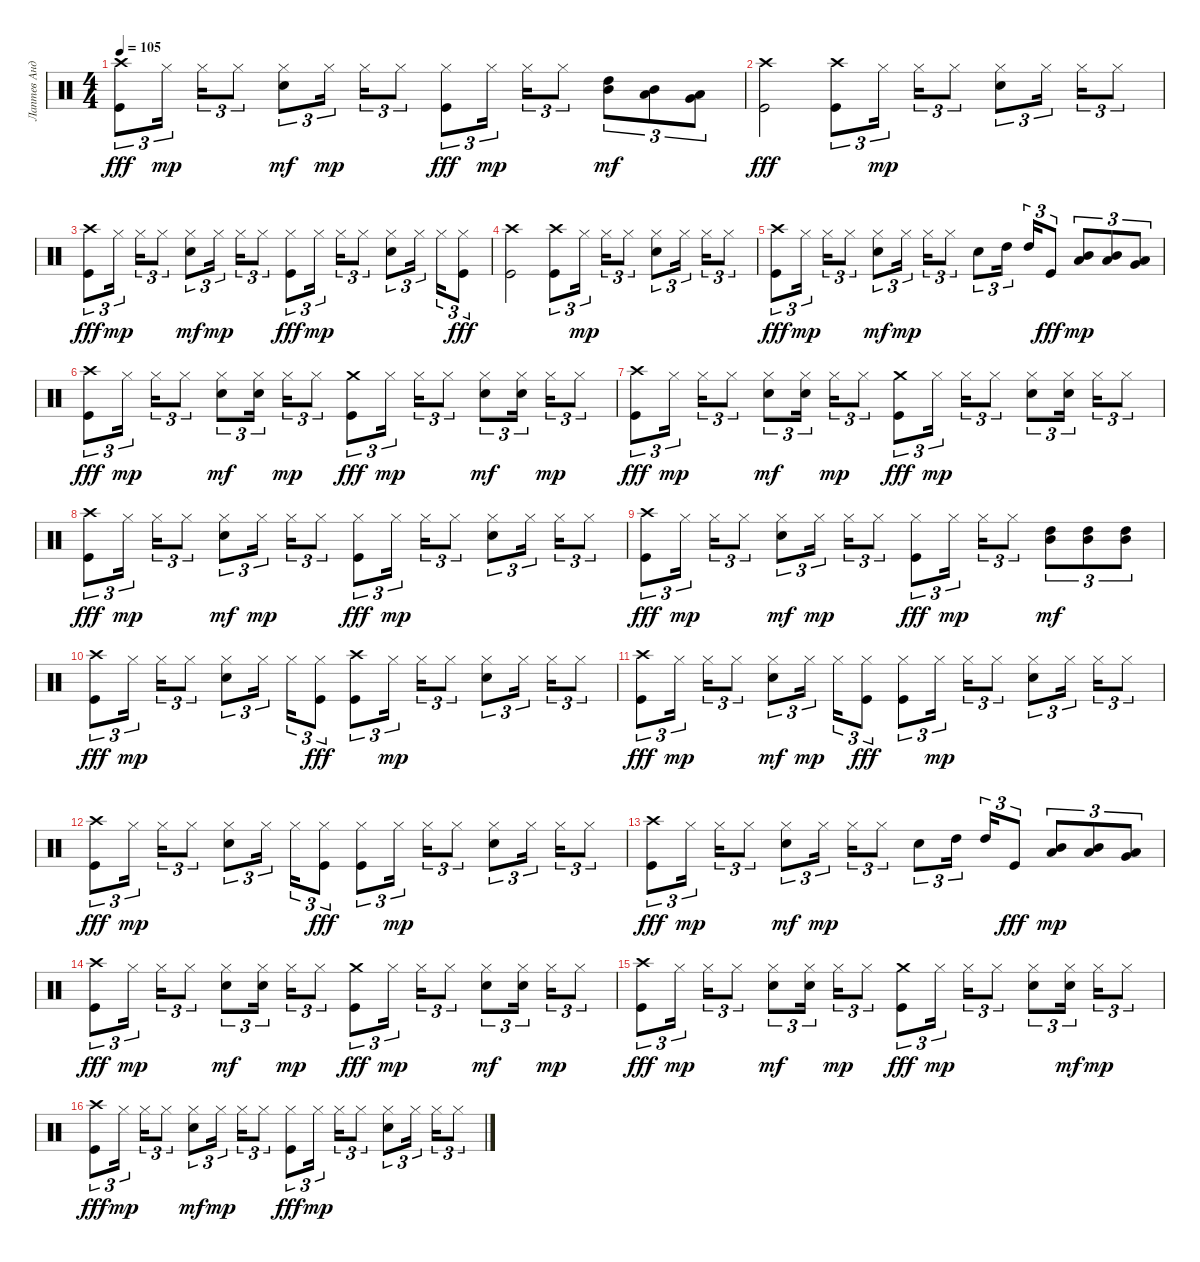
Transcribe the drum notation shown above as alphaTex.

\track ("Лаптев Андрей" "Лаптев Анд") {instrument percussion}
\staff {score}
\articulation defaults
\ts (4 4)
\tempo 105
\clef neutral
\ks c
("Crash high (hit)" "Kick (hit)").8{tu (3 2) dy fff} "Hi-Hat (closed)".16{tu (3 2) dy mp} "Hi-Hat (closed)".16{tu (3 2)} "Hi-Hat (closed)".8{tu (3 2)} ("Hi-Hat (closed)" "Electric Snare (hit)").8{tu (3 2) dy mf} "Hi-Hat (closed)".16{tu (3 2) dy mp} "Hi-Hat (closed)".16{tu (3 2)} "Hi-Hat (closed)".8{tu (3 2)} ("Hi-Hat (closed)" "Kick (hit)").8{tu (3 2) dy fff} "Hi-Hat (closed)".16{tu (3 2) dy mp} "Hi-Hat (closed)".16{tu (3 2)} "Hi-Hat (closed)".8{tu (3 2)} ("Mid Tom (hit)" "High Tom (hit)").8{tu (3 2) dy mf} ("Low Tom (hit)" "Mid Tom (hit)").8{tu (3 2)} ("Low Tom (hit)" "Very Low Tom (hit)").8{tu (3 2)} |
("Crash high (hit)" "Kick (hit)").2{dy fff} ("Crash high (hit)" "Kick (hit)").8{tu (3 2)} "Hi-Hat (closed)".16{tu (3 2) dy mp} "Hi-Hat (closed)".16{tu (3 2)} "Hi-Hat (closed)".8{tu (3 2)} ("Hi-Hat (closed)" "Electric Snare (hit)").8{tu (3 2)} "Hi-Hat (closed)".16{tu (3 2)} "Hi-Hat (closed)".16{tu (3 2)} "Hi-Hat (closed)".8{tu (3 2)} |
("Crash high (hit)" "Kick (hit)").8{tu (3 2) dy fff} "Hi-Hat (closed)".16{tu (3 2) dy mp} "Hi-Hat (closed)".16{tu (3 2)} "Hi-Hat (closed)".8{tu (3 2)} ("Hi-Hat (closed)" "Electric Snare (hit)").8{tu (3 2) dy mf} "Hi-Hat (closed)".16{tu (3 2) dy mp} "Hi-Hat (closed)".16{tu (3 2)} "Hi-Hat (closed)".8{tu (3 2)} ("Hi-Hat (closed)" "Kick (hit)").8{tu (3 2) dy fff} "Hi-Hat (closed)".16{tu (3 2) dy mp} "Hi-Hat (closed)".16{tu (3 2)} "Hi-Hat (closed)".8{tu (3 2)} ("Hi-Hat (closed)" "Electric Snare (hit)").8{tu (3 2)} "Hi-Hat (closed)".16{tu (3 2)} "Hi-Hat (closed)".16{tu (3 2)} ("Hi-Hat (closed)" "Kick (hit)").8{tu (3 2) dy fff} |
("Crash high (hit)" "Kick (hit)").2 ("Crash high (hit)" "Kick (hit)").8{tu (3 2)} "Hi-Hat (closed)".16{tu (3 2) dy mp} "Hi-Hat (closed)".16{tu (3 2)} "Hi-Hat (closed)".8{tu (3 2)} ("Hi-Hat (closed)" "Electric Snare (hit)").8{tu (3 2)} "Hi-Hat (closed)".16{tu (3 2)} "Hi-Hat (closed)".16{tu (3 2)} "Hi-Hat (closed)".8{tu (3 2)} |
("Crash high (hit)" "Kick (hit)").8{tu (3 2) dy fff} "Hi-Hat (closed)".16{tu (3 2) dy mp} "Hi-Hat (closed)".16{tu (3 2)} "Hi-Hat (closed)".8{tu (3 2)} ("Hi-Hat (closed)" "Electric Snare (hit)").8{tu (3 2) dy mf} "Hi-Hat (closed)".16{tu (3 2) dy mp} "Hi-Hat (closed)".16{tu (3 2)} "Hi-Hat (closed)".8{tu (3 2)} "Electric Snare (hit)".8{tu (3 2)} "High Tom (hit)".16{tu (3 2)} "High Tom (hit)".16{tu (3 2)} "Kick (hit)".8{tu (3 2) dy fff} ("Low Tom (hit)" "Mid Tom (hit)").8{tu (3 2) dy mp} ("Mid Tom (hit)" "Low Tom (hit)").8{tu (3 2)} ("Very Low Tom (hit)" "Low Tom (hit)").8{tu (3 2)} |
("Crash high (hit)" "Kick (hit)").8{tu (3 2) dy fff} "Hi-Hat (closed)".16{tu (3 2) dy mp} "Hi-Hat (closed)".16{tu (3 2)} "Hi-Hat (closed)".8{tu (3 2)} ("Hi-Hat (closed)" "Electric Snare (hit)").8{tu (3 2) dy mf} ("Hi-Hat (closed)" "Electric Snare (hit)").16{tu (3 2)} "Hi-Hat (closed)".16{tu (3 2) dy mp} "Hi-Hat (closed)".8{tu (3 2)} ("Crash medium (hit)" "Kick (hit)").8{tu (3 2) dy fff} "Hi-Hat (closed)".16{tu (3 2) dy mp} "Hi-Hat (closed)".16{tu (3 2)} "Hi-Hat (closed)".8{tu (3 2)} ("Hi-Hat (closed)" "Electric Snare (hit)").8{tu (3 2) dy mf} ("Hi-Hat (closed)" "Electric Snare (hit)").16{tu (3 2)} "Hi-Hat (closed)".16{tu (3 2) dy mp} "Hi-Hat (closed)".8{tu (3 2)} |
("Crash high (hit)" "Kick (hit)").8{tu (3 2) dy fff} "Hi-Hat (closed)".16{tu (3 2) dy mp} "Hi-Hat (closed)".16{tu (3 2)} "Hi-Hat (closed)".8{tu (3 2)} ("Hi-Hat (closed)" "Electric Snare (hit)").8{tu (3 2) dy mf} ("Hi-Hat (closed)" "Electric Snare (hit)").16{tu (3 2)} "Hi-Hat (closed)".16{tu (3 2) dy mp} "Hi-Hat (closed)".8{tu (3 2)} ("Crash medium (hit)" "Kick (hit)").8{tu (3 2) dy fff} "Hi-Hat (closed)".16{tu (3 2) dy mp} "Hi-Hat (closed)".16{tu (3 2)} "Hi-Hat (closed)".8{tu (3 2)} ("Hi-Hat (closed)" "Electric Snare (hit)").8{tu (3 2)} ("Electric Snare (hit)" "Hi-Hat (closed)").16{tu (3 2)} "Hi-Hat (closed)".16{tu (3 2)} "Hi-Hat (closed)".8{tu (3 2)} |
("Crash high (hit)" "Kick (hit)").8{tu (3 2) dy fff} "Hi-Hat (closed)".16{tu (3 2) dy mp} "Hi-Hat (closed)".16{tu (3 2)} "Hi-Hat (closed)".8{tu (3 2)} ("Hi-Hat (closed)" "Electric Snare (hit)").8{tu (3 2) dy mf} "Hi-Hat (closed)".16{tu (3 2) dy mp} "Hi-Hat (closed)".16{tu (3 2)} "Hi-Hat (closed)".8{tu (3 2)} ("Hi-Hat (closed)" "Kick (hit)").8{tu (3 2) dy fff} "Hi-Hat (closed)".16{tu (3 2) dy mp} "Hi-Hat (closed)".16{tu (3 2)} "Hi-Hat (closed)".8{tu (3 2)} ("Hi-Hat (closed)" "Electric Snare (hit)").8{tu (3 2)} "Hi-Hat (closed)".16{tu (3 2)} "Hi-Hat (closed)".16{tu (3 2)} "Hi-Hat (closed)".8{tu (3 2)} |
("Crash high (hit)" "Kick (hit)").8{tu (3 2) dy fff} "Hi-Hat (closed)".16{tu (3 2) dy mp} "Hi-Hat (closed)".16{tu (3 2)} "Hi-Hat (closed)".8{tu (3 2)} ("Hi-Hat (closed)" "Electric Snare (hit)").8{tu (3 2) dy mf} "Hi-Hat (closed)".16{tu (3 2) dy mp} "Hi-Hat (closed)".16{tu (3 2)} "Hi-Hat (closed)".8{tu (3 2)} ("Hi-Hat (closed)" "Kick (hit)").8{tu (3 2) dy fff} "Hi-Hat (closed)".16{tu (3 2) dy mp} "Hi-Hat (closed)".16{tu (3 2)} "Hi-Hat (closed)".8{tu (3 2)} ("Mid Tom (hit)" "High Tom (hit)").8{tu (3 2) dy mf} ("High Tom (hit)" "Mid Tom (hit)").8{tu (3 2)} ("Mid Tom (hit)" "High Tom (hit)").8{tu (3 2)} |
("Crash high (hit)" "Kick (hit)").8{tu (3 2) dy fff} "Hi-Hat (closed)".16{tu (3 2) dy mp} "Hi-Hat (closed)".16{tu (3 2)} "Hi-Hat (closed)".8{tu (3 2)} ("Electric Snare (hit)" "Hi-Hat (closed)").8{tu (3 2)} "Hi-Hat (closed)".16{tu (3 2)} "Hi-Hat (closed)".16{tu (3 2)} ("Hi-Hat (closed)" "Kick (hit)").8{tu (3 2) dy fff} ("Crash high (hit)" "Kick (hit)").8{tu (3 2)} "Hi-Hat (closed)".16{tu (3 2) dy mp} "Hi-Hat (closed)".16{tu (3 2)} "Hi-Hat (closed)".8{tu (3 2)} ("Hi-Hat (closed)" "Electric Snare (hit)").8{tu (3 2)} "Hi-Hat (closed)".16{tu (3 2)} "Hi-Hat (closed)".16{tu (3 2)} "Hi-Hat (closed)".8{tu (3 2)} |
("Crash high (hit)" "Kick (hit)").8{tu (3 2) dy fff} "Hi-Hat (closed)".16{tu (3 2) dy mp} "Hi-Hat (closed)".16{tu (3 2)} "Hi-Hat (closed)".8{tu (3 2)} ("Hi-Hat (closed)" "Electric Snare (hit)").8{tu (3 2) dy mf} "Hi-Hat (closed)".16{tu (3 2) dy mp} "Hi-Hat (closed)".16{tu (3 2)} ("Hi-Hat (closed)" "Kick (hit)").8{tu (3 2) dy fff} ("Hi-Hat (closed)" "Kick (hit)").8{tu (3 2)} "Hi-Hat (closed)".16{tu (3 2) dy mp} "Hi-Hat (closed)".16{tu (3 2)} "Hi-Hat (closed)".8{tu (3 2)} ("Hi-Hat (closed)" "Electric Snare (hit)").8{tu (3 2)} "Hi-Hat (closed)".16{tu (3 2)} "Hi-Hat (closed)".16{tu (3 2)} "Hi-Hat (closed)".8{tu (3 2)} |
("Crash high (hit)" "Kick (hit)").8{tu (3 2) dy fff} "Hi-Hat (closed)".16{tu (3 2) dy mp} "Hi-Hat (closed)".16{tu (3 2)} "Hi-Hat (closed)".8{tu (3 2)} ("Electric Snare (hit)" "Hi-Hat (closed)").8{tu (3 2)} "Hi-Hat (closed)".16{tu (3 2)} "Hi-Hat (closed)".16{tu (3 2)} ("Hi-Hat (closed)" "Kick (hit)").8{tu (3 2) dy fff} ("Hi-Hat (closed)" "Kick (hit)").8{tu (3 2)} "Hi-Hat (closed)".16{tu (3 2) dy mp} "Hi-Hat (closed)".16{tu (3 2)} "Hi-Hat (closed)".8{tu (3 2)} ("Hi-Hat (closed)" "Electric Snare (hit)").8{tu (3 2)} "Hi-Hat (closed)".16{tu (3 2)} "Hi-Hat (closed)".16{tu (3 2)} "Hi-Hat (closed)".8{tu (3 2)} |
("Crash high (hit)" "Kick (hit)").8{tu (3 2) dy fff} "Hi-Hat (closed)".16{tu (3 2) dy mp} "Hi-Hat (closed)".16{tu (3 2)} "Hi-Hat (closed)".8{tu (3 2)} ("Hi-Hat (closed)" "Electric Snare (hit)").8{tu (3 2) dy mf} "Hi-Hat (closed)".16{tu (3 2) dy mp} "Hi-Hat (closed)".16{tu (3 2)} "Hi-Hat (closed)".8{tu (3 2)} "Electric Snare (hit)".8{tu (3 2)} "High Tom (hit)".16{tu (3 2)} "High Tom (hit)".16{tu (3 2)} "Kick (hit)".8{tu (3 2) dy fff} ("Low Tom (hit)" "Mid Tom (hit)").8{tu (3 2) dy mp} ("Mid Tom (hit)" "Low Tom (hit)").8{tu (3 2)} ("Very Low Tom (hit)" "Low Tom (hit)").8{tu (3 2)} |
("Crash high (hit)" "Kick (hit)").8{tu (3 2) dy fff} "Hi-Hat (closed)".16{tu (3 2) dy mp} "Hi-Hat (closed)".16{tu (3 2)} "Hi-Hat (closed)".8{tu (3 2)} ("Hi-Hat (closed)" "Electric Snare (hit)").8{tu (3 2) dy mf} ("Hi-Hat (closed)" "Electric Snare (hit)").16{tu (3 2)} "Hi-Hat (closed)".16{tu (3 2) dy mp} "Hi-Hat (closed)".8{tu (3 2)} ("Crash medium (hit)" "Kick (hit)").8{tu (3 2) dy fff} "Hi-Hat (closed)".16{tu (3 2) dy mp} "Hi-Hat (closed)".16{tu (3 2)} "Hi-Hat (closed)".8{tu (3 2)} ("Hi-Hat (closed)" "Electric Snare (hit)").8{tu (3 2) dy mf} ("Hi-Hat (closed)" "Electric Snare (hit)").16{tu (3 2)} "Hi-Hat (closed)".16{tu (3 2) dy mp} "Hi-Hat (closed)".8{tu (3 2)} |
("Crash high (hit)" "Kick (hit)").8{tu (3 2) dy fff} "Hi-Hat (closed)".16{tu (3 2) dy mp} "Hi-Hat (closed)".16{tu (3 2)} "Hi-Hat (closed)".8{tu (3 2)} ("Hi-Hat (closed)" "Electric Snare (hit)").8{tu (3 2) dy mf} ("Hi-Hat (closed)" "Electric Snare (hit)").16{tu (3 2)} "Hi-Hat (closed)".16{tu (3 2) dy mp} "Hi-Hat (closed)".8{tu (3 2)} ("Crash medium (hit)" "Kick (hit)").8{tu (3 2) dy fff} "Hi-Hat (closed)".16{tu (3 2) dy mp} "Hi-Hat (closed)".16{tu (3 2)} "Hi-Hat (closed)".8{tu (3 2)} ("Hi-Hat (closed)" "Electric Snare (hit)").8{tu (3 2)} ("Hi-Hat (closed)" "Electric Snare (hit)").16{tu (3 2) dy mf} "Hi-Hat (closed)".16{tu (3 2) dy mp} "Hi-Hat (closed)".8{tu (3 2)} |
("Crash high (hit)" "Kick (hit)").8{tu (3 2) dy fff} "Hi-Hat (closed)".16{tu (3 2) dy mp} "Hi-Hat (closed)".16{tu (3 2)} "Hi-Hat (closed)".8{tu (3 2)} ("Hi-Hat (closed)" "Electric Snare (hit)").8{tu (3 2) dy mf} "Hi-Hat (closed)".16{tu (3 2) dy mp} "Hi-Hat (closed)".16{tu (3 2)} "Hi-Hat (closed)".8{tu (3 2)} ("Hi-Hat (closed)" "Kick (hit)").8{tu (3 2) dy fff} "Hi-Hat (closed)".16{tu (3 2) dy mp} "Hi-Hat (closed)".16{tu (3 2)} "Hi-Hat (closed)".8{tu (3 2)} ("Hi-Hat (closed)" "Electric Snare (hit)").8{tu (3 2)} "Hi-Hat (closed)".16{tu (3 2)} "Hi-Hat (closed)".16{tu (3 2)} "Hi-Hat (closed)".8{tu (3 2)}
